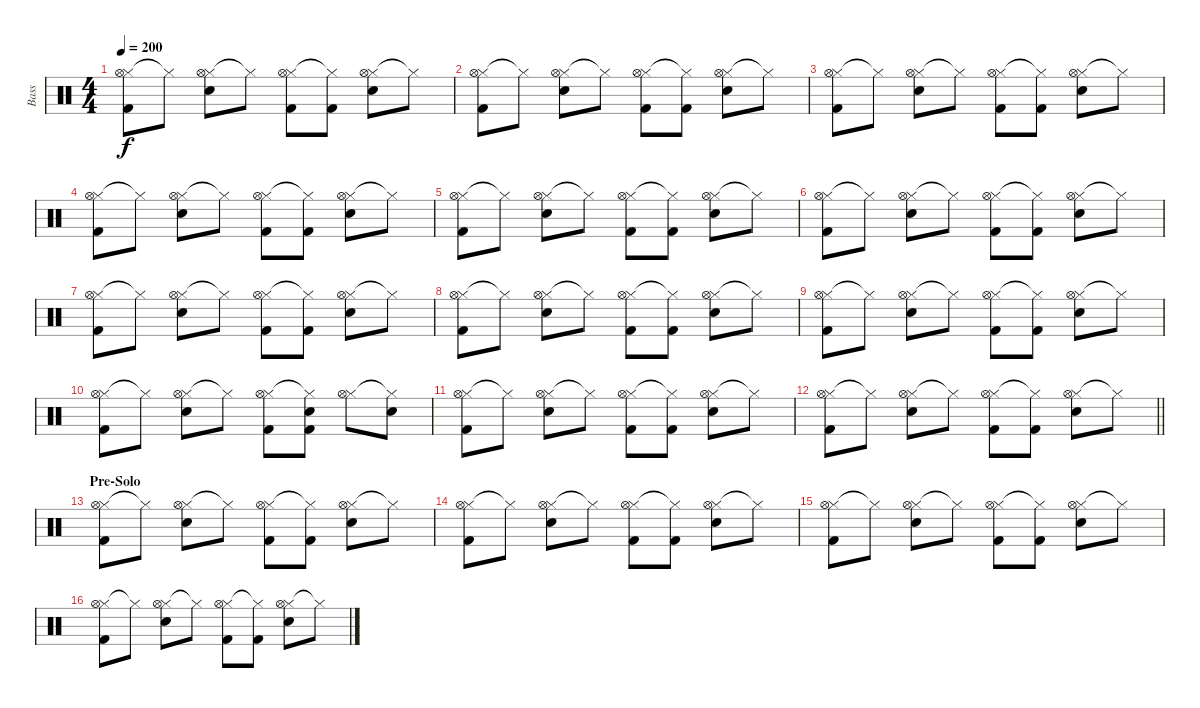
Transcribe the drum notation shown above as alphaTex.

\track ("Bass" "Bass") {instrument percussion}
\staff {score}
\articulation defaults
\ts (4 4)
\tempo 200
\clef neutral
\ks c
("Hi-Hat (closed)" "Hi-Hat (open)" "Kick (hit) 2").8{dy f} "Hi-Hat (closed)"{t}.8 ("Hi-Hat (closed)" "Hi-Hat (open)" "Snare (hit) 2").8 "Hi-Hat (closed)"{t}.8 ("Hi-Hat (closed)" "Hi-Hat (open)" "Kick (hit) 2").8 ("Hi-Hat (closed)"{t} "Kick (hit) 2").8 ("Hi-Hat (closed)" "Hi-Hat (open)" "Snare (hit) 2").8 "Hi-Hat (closed)"{t}.8 |
("Hi-Hat (closed)" "Hi-Hat (open)" "Kick (hit) 2").8 "Hi-Hat (closed)"{t}.8 ("Hi-Hat (closed)" "Hi-Hat (open)" "Snare (hit) 2").8 "Hi-Hat (closed)"{t}.8 ("Hi-Hat (closed)" "Hi-Hat (open)" "Kick (hit) 2").8 ("Hi-Hat (closed)"{t} "Kick (hit) 2").8 ("Hi-Hat (closed)" "Hi-Hat (open)" "Snare (hit) 2").8 "Hi-Hat (closed)"{t}.8 |
("Hi-Hat (closed)" "Hi-Hat (open)" "Kick (hit) 2").8 "Hi-Hat (closed)"{t}.8 ("Hi-Hat (closed)" "Hi-Hat (open)" "Snare (hit) 2").8 "Hi-Hat (closed)"{t}.8 ("Hi-Hat (closed)" "Hi-Hat (open)" "Kick (hit) 2").8 ("Hi-Hat (closed)"{t} "Kick (hit) 2").8 ("Hi-Hat (closed)" "Hi-Hat (open)" "Snare (hit) 2").8 "Hi-Hat (closed)"{t}.8 |
("Hi-Hat (closed)" "Hi-Hat (open)" "Kick (hit) 2").8 "Hi-Hat (closed)"{t}.8 ("Hi-Hat (closed)" "Hi-Hat (open)" "Snare (hit) 2").8 "Hi-Hat (closed)"{t}.8 ("Hi-Hat (closed)" "Hi-Hat (open)" "Kick (hit) 2").8 ("Hi-Hat (closed)"{t} "Kick (hit) 2").8 ("Hi-Hat (closed)" "Hi-Hat (open)" "Snare (hit) 2").8 "Hi-Hat (closed)"{t}.8 |
("Hi-Hat (closed)" "Hi-Hat (open)" "Kick (hit) 2").8 "Hi-Hat (closed)"{t}.8 ("Hi-Hat (closed)" "Hi-Hat (open)" "Snare (hit) 2").8 "Hi-Hat (closed)"{t}.8 ("Hi-Hat (closed)" "Hi-Hat (open)" "Kick (hit) 2").8 ("Hi-Hat (closed)"{t} "Kick (hit) 2").8 ("Hi-Hat (closed)" "Hi-Hat (open)" "Snare (hit) 2").8 "Hi-Hat (closed)"{t}.8 |
("Hi-Hat (closed)" "Hi-Hat (open)" "Kick (hit) 2").8 "Hi-Hat (closed)"{t}.8 ("Hi-Hat (closed)" "Hi-Hat (open)" "Snare (hit) 2").8 "Hi-Hat (closed)"{t}.8 ("Hi-Hat (closed)" "Hi-Hat (open)" "Kick (hit) 2").8 ("Hi-Hat (closed)"{t} "Kick (hit) 2").8 ("Hi-Hat (closed)" "Hi-Hat (open)" "Snare (hit) 2").8 "Hi-Hat (closed)"{t}.8 |
("Hi-Hat (closed)" "Hi-Hat (open)" "Kick (hit) 2").8 "Hi-Hat (closed)"{t}.8 ("Hi-Hat (closed)" "Hi-Hat (open)" "Snare (hit) 2").8 "Hi-Hat (closed)"{t}.8 ("Hi-Hat (closed)" "Hi-Hat (open)" "Kick (hit) 2").8 ("Hi-Hat (closed)"{t} "Kick (hit) 2").8 ("Hi-Hat (closed)" "Hi-Hat (open)" "Snare (hit) 2").8 "Hi-Hat (closed)"{t}.8 |
("Hi-Hat (closed)" "Hi-Hat (open)" "Kick (hit) 2").8 "Hi-Hat (closed)"{t}.8 ("Hi-Hat (closed)" "Hi-Hat (open)" "Snare (hit) 2").8 "Hi-Hat (closed)"{t}.8 ("Hi-Hat (closed)" "Hi-Hat (open)" "Kick (hit) 2").8 ("Hi-Hat (closed)"{t} "Kick (hit) 2").8 ("Hi-Hat (closed)" "Hi-Hat (open)" "Snare (hit) 2").8 "Hi-Hat (closed)"{t}.8 |
("Hi-Hat (closed)" "Hi-Hat (open)" "Kick (hit) 2").8 "Hi-Hat (closed)"{t}.8 ("Hi-Hat (closed)" "Hi-Hat (open)" "Snare (hit) 2").8 "Hi-Hat (closed)"{t}.8 ("Hi-Hat (closed)" "Hi-Hat (open)" "Kick (hit) 2").8 ("Hi-Hat (closed)"{t} "Kick (hit) 2").8 ("Hi-Hat (closed)" "Hi-Hat (open)" "Snare (hit) 2").8 "Hi-Hat (closed)"{t}.8 |
("Hi-Hat (closed)" "Hi-Hat (open)" "Kick (hit) 2").8 "Hi-Hat (closed)"{t}.8 ("Hi-Hat (closed)" "Hi-Hat (open)" "Snare (hit) 2").8 "Hi-Hat (closed)"{t}.8 ("Hi-Hat (closed)" "Hi-Hat (open)" "Kick (hit) 2").8 ("Hi-Hat (closed)"{t} "Snare (hit) 2" "Kick (hit) 2").8 ("Hi-Hat (closed)" "Hi-Hat (open)").8 ("Hi-Hat (closed)"{t} "Snare (hit) 2").8 |
("Hi-Hat (closed)" "Hi-Hat (open)" "Kick (hit) 2").8 "Hi-Hat (closed)"{t}.8 ("Hi-Hat (closed)" "Hi-Hat (open)" "Snare (hit) 2").8 "Hi-Hat (closed)"{t}.8 ("Hi-Hat (closed)" "Hi-Hat (open)" "Kick (hit) 2").8 ("Hi-Hat (closed)"{t} "Kick (hit) 2").8 ("Hi-Hat (closed)" "Hi-Hat (open)" "Snare (hit) 2").8 "Hi-Hat (closed)"{t}.8 |
\barLineRight lightlight
("Hi-Hat (closed)" "Hi-Hat (open)" "Kick (hit) 2").8 "Hi-Hat (closed)"{t}.8 ("Hi-Hat (closed)" "Hi-Hat (open)" "Snare (hit) 2").8 "Hi-Hat (closed)"{t}.8 ("Hi-Hat (closed)" "Hi-Hat (open)" "Kick (hit) 2").8 ("Hi-Hat (closed)"{t} "Kick (hit) 2").8 ("Hi-Hat (closed)" "Hi-Hat (open)" "Snare (hit) 2").8 "Hi-Hat (closed)"{t}.8 |
\section ("" "Pre-Solo")
("Hi-Hat (closed)" "Hi-Hat (open)" "Kick (hit) 2").8 "Hi-Hat (closed)"{t}.8 ("Hi-Hat (closed)" "Hi-Hat (open)" "Snare (hit) 2").8 "Hi-Hat (closed)"{t}.8 ("Hi-Hat (closed)" "Hi-Hat (open)" "Kick (hit) 2").8 ("Hi-Hat (closed)"{t} "Kick (hit) 2").8 ("Hi-Hat (closed)" "Hi-Hat (open)" "Snare (hit) 2").8 "Hi-Hat (closed)"{t}.8 |
("Hi-Hat (closed)" "Hi-Hat (open)" "Kick (hit) 2").8 "Hi-Hat (closed)"{t}.8 ("Hi-Hat (closed)" "Hi-Hat (open)" "Snare (hit) 2").8 "Hi-Hat (closed)"{t}.8 ("Hi-Hat (closed)" "Hi-Hat (open)" "Kick (hit) 2").8 ("Hi-Hat (closed)"{t} "Kick (hit) 2").8 ("Hi-Hat (closed)" "Hi-Hat (open)" "Snare (hit) 2").8 "Hi-Hat (closed)"{t}.8 |
("Hi-Hat (closed)" "Hi-Hat (open)" "Kick (hit) 2").8 "Hi-Hat (closed)"{t}.8 ("Hi-Hat (closed)" "Hi-Hat (open)" "Snare (hit) 2").8 "Hi-Hat (closed)"{t}.8 ("Hi-Hat (closed)" "Hi-Hat (open)" "Kick (hit) 2").8 ("Hi-Hat (closed)"{t} "Kick (hit) 2").8 ("Hi-Hat (closed)" "Hi-Hat (open)" "Snare (hit) 2").8 "Hi-Hat (closed)"{t}.8 |
("Hi-Hat (closed)" "Hi-Hat (open)" "Kick (hit) 2").8 "Hi-Hat (closed)"{t}.8 ("Hi-Hat (closed)" "Hi-Hat (open)" "Snare (hit) 2").8 "Hi-Hat (closed)"{t}.8 ("Hi-Hat (closed)" "Hi-Hat (open)" "Kick (hit) 2").8 ("Hi-Hat (closed)"{t} "Kick (hit) 2").8 ("Hi-Hat (closed)" "Hi-Hat (open)" "Snare (hit) 2").8 "Hi-Hat (closed)"{t}.8
